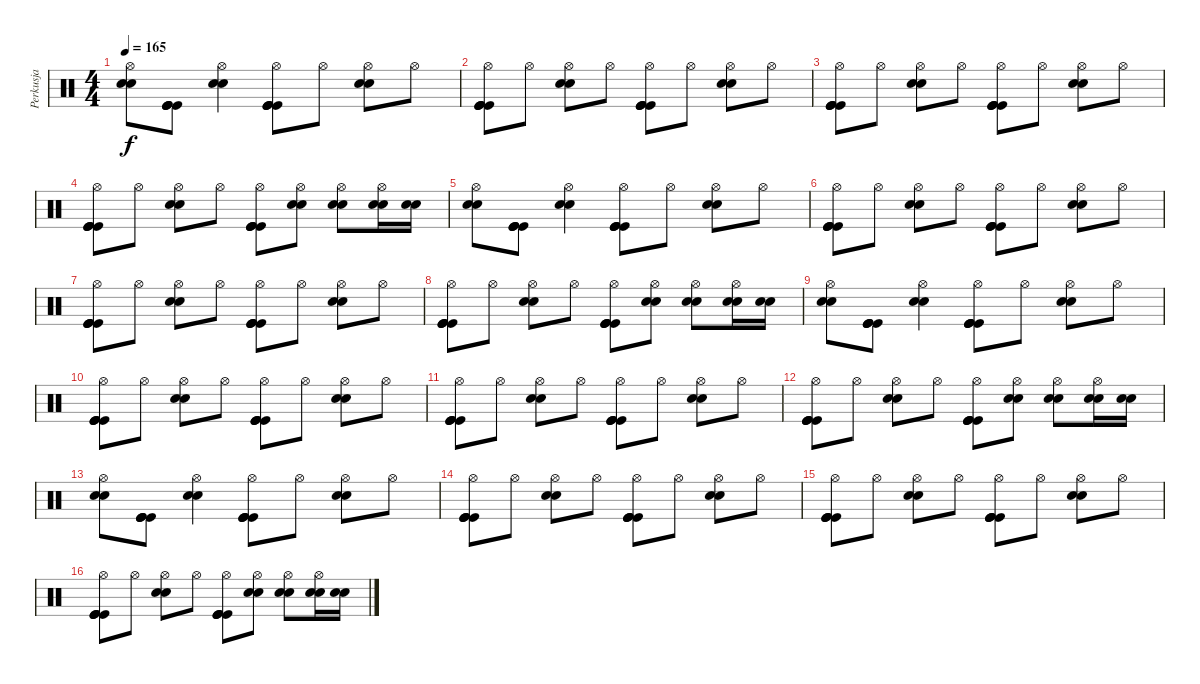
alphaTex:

\track ("Perkusja" "Perkusja") {instrument percussion}
\staff {score}
\articulation defaults
\ts (4 4)
\tempo 165
\clef neutral
\ks c
("Hi-Hat (open)" "Snare (hit) 2" "Snare (hit) 2").8{dy f} ("Kick (hit)" "Kick (hit)" "Kick (hit)" "Kick (hit)").8 ("Hi-Hat (open)" "Snare (hit) 2" "Snare (hit) 2").4 ("Hi-Hat (open)" "Kick (hit)" "Kick (hit)" "Kick (hit)" "Kick (hit)").8 "Hi-Hat (open)".8 ("Hi-Hat (open)" "Snare (hit) 2" "Snare (hit) 2").8 "Hi-Hat (open)".8 |
("Hi-Hat (open)" "Kick (hit)" "Kick (hit)" "Kick (hit)" "Kick (hit)").8 "Hi-Hat (open)".8 ("Hi-Hat (open)" "Snare (hit) 2" "Snare (hit) 2").8 "Hi-Hat (open)".8 ("Hi-Hat (open)" "Kick (hit)" "Kick (hit)" "Kick (hit)" "Kick (hit)").8 "Hi-Hat (open)".8 ("Hi-Hat (open)" "Snare (hit) 2" "Snare (hit) 2").8 "Hi-Hat (open)".8 |
("Hi-Hat (open)" "Kick (hit)" "Kick (hit)" "Kick (hit)" "Kick (hit)").8 "Hi-Hat (open)".8 ("Hi-Hat (open)" "Snare (hit) 2" "Snare (hit) 2").8 "Hi-Hat (open)".8 ("Hi-Hat (open)" "Kick (hit)" "Kick (hit)" "Kick (hit)" "Kick (hit)").8 "Hi-Hat (open)".8 ("Hi-Hat (open)" "Snare (hit) 2" "Snare (hit) 2").8 "Hi-Hat (open)".8 |
("Hi-Hat (open)" "Kick (hit)" "Kick (hit)" "Kick (hit)" "Kick (hit)").8 "Hi-Hat (open)".8 ("Hi-Hat (open)" "Snare (hit) 2" "Snare (hit) 2").8 "Hi-Hat (open)".8 ("Hi-Hat (open)" "Kick (hit)" "Kick (hit)" "Kick (hit)" "Kick (hit)").8 ("Hi-Hat (open)" "Snare (hit) 2" "Snare (hit) 2").8 ("Hi-Hat (open)" "Snare (hit) 2" "Snare (hit) 2").8 ("Hi-Hat (open)" "Snare (hit) 2" "Snare (hit) 2").16 ("Snare (hit) 2" "Snare (hit) 2").16 |
("Hi-Hat (open)" "Snare (hit) 2" "Snare (hit) 2").8 ("Kick (hit)" "Kick (hit)" "Kick (hit)" "Kick (hit)").8 ("Hi-Hat (open)" "Snare (hit) 2" "Snare (hit) 2").4 ("Hi-Hat (open)" "Kick (hit)" "Kick (hit)" "Kick (hit)" "Kick (hit)").8 "Hi-Hat (open)".8 ("Hi-Hat (open)" "Snare (hit) 2" "Snare (hit) 2").8 "Hi-Hat (open)".8 |
("Hi-Hat (open)" "Kick (hit)" "Kick (hit)" "Kick (hit)" "Kick (hit)").8 "Hi-Hat (open)".8 ("Hi-Hat (open)" "Snare (hit) 2" "Snare (hit) 2").8 "Hi-Hat (open)".8 ("Hi-Hat (open)" "Kick (hit)" "Kick (hit)" "Kick (hit)" "Kick (hit)").8 "Hi-Hat (open)".8 ("Hi-Hat (open)" "Snare (hit) 2" "Snare (hit) 2").8 "Hi-Hat (open)".8 |
("Hi-Hat (open)" "Kick (hit)" "Kick (hit)" "Kick (hit)" "Kick (hit)").8 "Hi-Hat (open)".8 ("Hi-Hat (open)" "Snare (hit) 2" "Snare (hit) 2").8 "Hi-Hat (open)".8 ("Hi-Hat (open)" "Kick (hit)" "Kick (hit)" "Kick (hit)" "Kick (hit)").8 "Hi-Hat (open)".8 ("Hi-Hat (open)" "Snare (hit) 2" "Snare (hit) 2").8 "Hi-Hat (open)".8 |
("Hi-Hat (open)" "Kick (hit)" "Kick (hit)" "Kick (hit)" "Kick (hit)").8 "Hi-Hat (open)".8 ("Hi-Hat (open)" "Snare (hit) 2" "Snare (hit) 2").8 "Hi-Hat (open)".8 ("Hi-Hat (open)" "Kick (hit)" "Kick (hit)" "Kick (hit)" "Kick (hit)").8 ("Hi-Hat (open)" "Snare (hit) 2" "Snare (hit) 2").8 ("Hi-Hat (open)" "Snare (hit) 2" "Snare (hit) 2").8 ("Hi-Hat (open)" "Snare (hit) 2" "Snare (hit) 2").16 ("Snare (hit) 2" "Snare (hit) 2").16 |
("Hi-Hat (open)" "Snare (hit) 2" "Snare (hit) 2").8 ("Kick (hit)" "Kick (hit)" "Kick (hit)" "Kick (hit)").8 ("Hi-Hat (open)" "Snare (hit) 2" "Snare (hit) 2").4 ("Hi-Hat (open)" "Kick (hit)" "Kick (hit)" "Kick (hit)" "Kick (hit)").8 "Hi-Hat (open)".8 ("Hi-Hat (open)" "Snare (hit) 2" "Snare (hit) 2").8 "Hi-Hat (open)".8 |
("Hi-Hat (open)" "Kick (hit)" "Kick (hit)" "Kick (hit)" "Kick (hit)").8 "Hi-Hat (open)".8 ("Hi-Hat (open)" "Snare (hit) 2" "Snare (hit) 2").8 "Hi-Hat (open)".8 ("Hi-Hat (open)" "Kick (hit)" "Kick (hit)" "Kick (hit)" "Kick (hit)").8 "Hi-Hat (open)".8 ("Hi-Hat (open)" "Snare (hit) 2" "Snare (hit) 2").8 "Hi-Hat (open)".8 |
("Hi-Hat (open)" "Kick (hit)" "Kick (hit)" "Kick (hit)" "Kick (hit)").8 "Hi-Hat (open)".8 ("Hi-Hat (open)" "Snare (hit) 2" "Snare (hit) 2").8 "Hi-Hat (open)".8 ("Hi-Hat (open)" "Kick (hit)" "Kick (hit)" "Kick (hit)" "Kick (hit)").8 "Hi-Hat (open)".8 ("Hi-Hat (open)" "Snare (hit) 2" "Snare (hit) 2").8 "Hi-Hat (open)".8 |
("Hi-Hat (open)" "Kick (hit)" "Kick (hit)" "Kick (hit)" "Kick (hit)").8 "Hi-Hat (open)".8 ("Hi-Hat (open)" "Snare (hit) 2" "Snare (hit) 2").8 "Hi-Hat (open)".8 ("Hi-Hat (open)" "Kick (hit)" "Kick (hit)" "Kick (hit)" "Kick (hit)").8 ("Hi-Hat (open)" "Snare (hit) 2" "Snare (hit) 2").8 ("Hi-Hat (open)" "Snare (hit) 2" "Snare (hit) 2").8 ("Hi-Hat (open)" "Snare (hit) 2" "Snare (hit) 2").16 ("Snare (hit) 2" "Snare (hit) 2").16 |
("Hi-Hat (open)" "Snare (hit) 2" "Snare (hit) 2").8 ("Kick (hit)" "Kick (hit)" "Kick (hit)" "Kick (hit)").8 ("Hi-Hat (open)" "Snare (hit) 2" "Snare (hit) 2").4 ("Hi-Hat (open)" "Kick (hit)" "Kick (hit)" "Kick (hit)" "Kick (hit)").8 "Hi-Hat (open)".8 ("Hi-Hat (open)" "Snare (hit) 2" "Snare (hit) 2").8 "Hi-Hat (open)".8 |
("Hi-Hat (open)" "Kick (hit)" "Kick (hit)" "Kick (hit)" "Kick (hit)").8 "Hi-Hat (open)".8 ("Hi-Hat (open)" "Snare (hit) 2" "Snare (hit) 2").8 "Hi-Hat (open)".8 ("Hi-Hat (open)" "Kick (hit)" "Kick (hit)" "Kick (hit)" "Kick (hit)").8 "Hi-Hat (open)".8 ("Hi-Hat (open)" "Snare (hit) 2" "Snare (hit) 2").8 "Hi-Hat (open)".8 |
("Hi-Hat (open)" "Kick (hit)" "Kick (hit)" "Kick (hit)" "Kick (hit)").8 "Hi-Hat (open)".8 ("Hi-Hat (open)" "Snare (hit) 2" "Snare (hit) 2").8 "Hi-Hat (open)".8 ("Hi-Hat (open)" "Kick (hit)" "Kick (hit)" "Kick (hit)" "Kick (hit)").8 "Hi-Hat (open)".8 ("Hi-Hat (open)" "Snare (hit) 2" "Snare (hit) 2").8 "Hi-Hat (open)".8 |
("Hi-Hat (open)" "Kick (hit)" "Kick (hit)" "Kick (hit)" "Kick (hit)").8 "Hi-Hat (open)".8 ("Hi-Hat (open)" "Snare (hit) 2" "Snare (hit) 2").8 "Hi-Hat (open)".8 ("Hi-Hat (open)" "Kick (hit)" "Kick (hit)" "Kick (hit)" "Kick (hit)").8 ("Hi-Hat (open)" "Snare (hit) 2" "Snare (hit) 2").8 ("Hi-Hat (open)" "Snare (hit) 2" "Snare (hit) 2").8 ("Hi-Hat (open)" "Snare (hit) 2" "Snare (hit) 2").16 ("Snare (hit) 2" "Snare (hit) 2").16
